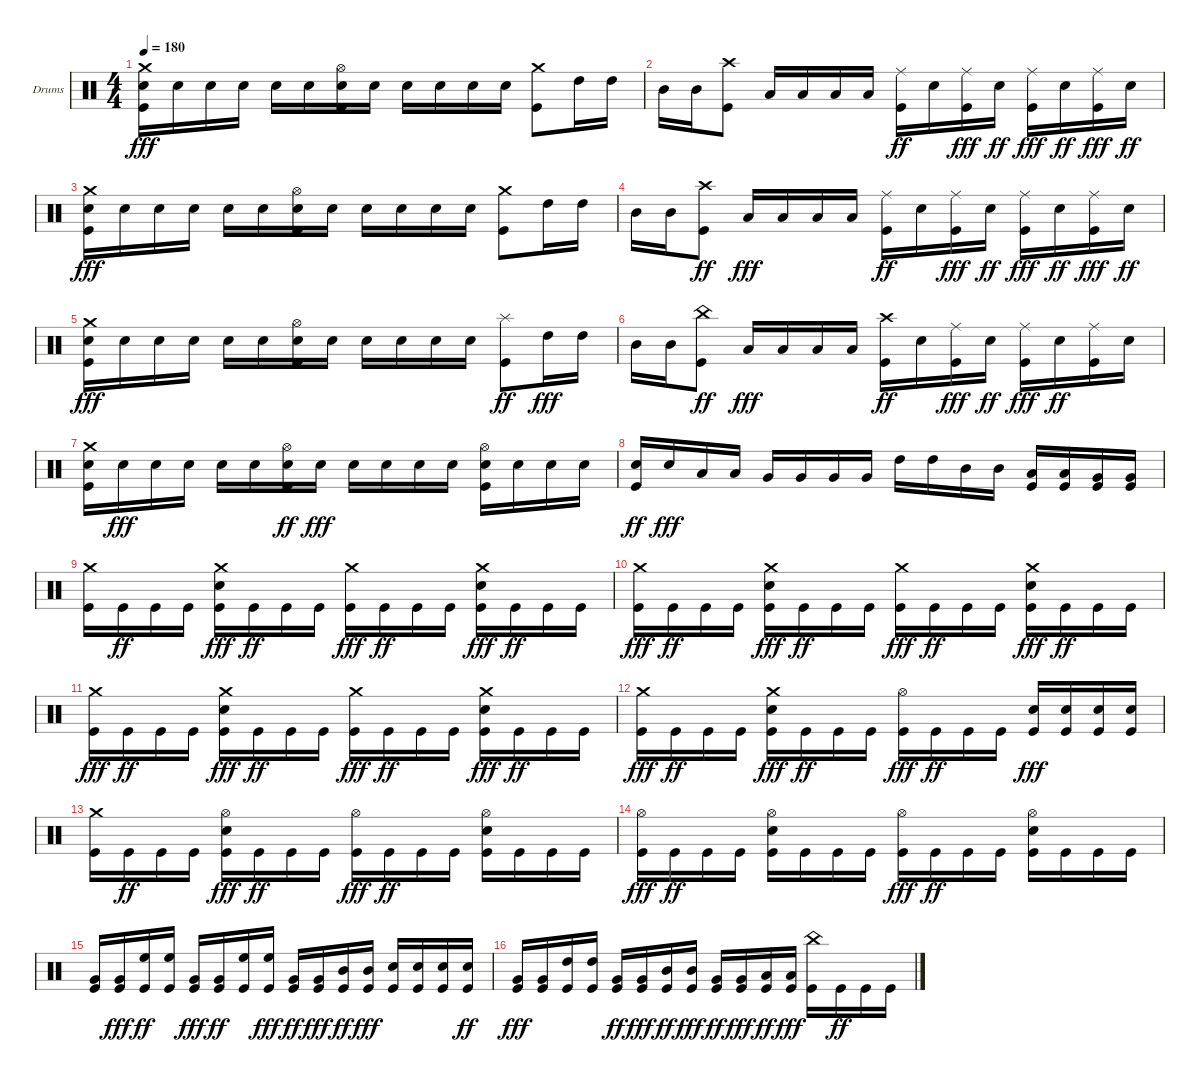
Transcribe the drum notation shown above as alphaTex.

\bracketExtendMode groupsimilarinstruments
\firstSystemTrackNameOrientation horizontal
\otherSystemsTrackNameOrientation horizontal
\track ("Drumkit" "Drums") {instrument percussion}
\staff {score}
\articulation defaults
\ts (4 4)
\tempo 180
\clef neutral
\ks c
("Snare (hit) 2" "Kick (hit)" "Crash medium (hit)").16{dy fff} "Snare (hit) 2".16 "Snare (hit) 2".16 "Snare (hit) 2".16 "Snare (hit) 2".16 "Snare (hit) 2".16 ("Snare (hit) 2" "Hi-Hat (open)" "Kick (hit)").16 "Snare (hit) 2".16 "Snare (hit) 2".16 "Snare (hit) 2".16 "Snare (hit) 2".16 "Snare (hit) 2".16 ("Crash medium (hit)" "Kick (hit)").8 "High Tom (hit)".16 "High Tom (hit)".16 |
"Mid Tom (hit)".16 "Mid Tom (hit)".16 ("Crash high (hit)" "Kick (hit)").8 "Low Tom (hit)".16 "Low Tom (hit)".16 "Low Tom (hit)".16 "Low Tom (hit)".16 ("Kick (hit)" "Ride (middle)").16{dy ff} "Snare (hit) 2".16 ("Ride (middle)" "Kick (hit)").16{dy fff} "Snare (hit) 2".16{dy ff} ("Ride (middle)" "Kick (hit)").16{dy fff} "Snare (hit) 2".16{dy ff} ("Ride (middle)" "Kick (hit)").16{dy fff} "Snare (hit) 2".16{dy ff} |
("Snare (hit) 2" "Kick (hit)" "Crash medium (hit)").16{dy fff} "Snare (hit) 2".16 "Snare (hit) 2".16 "Snare (hit) 2".16 "Snare (hit) 2".16 "Snare (hit) 2".16 ("Snare (hit) 2" "Hi-Hat (open)" "Kick (hit)").16 "Snare (hit) 2".16 "Snare (hit) 2".16 "Snare (hit) 2".16 "Snare (hit) 2".16 "Snare (hit) 2".16 ("Crash medium (hit)" "Kick (hit)").8 "High Tom (hit)".16 "High Tom (hit)".16 |
"Mid Tom (hit)".16 "Mid Tom (hit)".16 ("Kick (hit)" "Crash high (hit)").8{dy ff} "Low Tom (hit)".16{dy fff} "Low Tom (hit)".16 "Low Tom (hit)".16 "Low Tom (hit)".16 ("Kick (hit)" "Ride (middle)").16{dy ff} "Snare (hit) 2".16 ("Ride (middle)" "Kick (hit)").16{dy fff} "Snare (hit) 2".16{dy ff} ("Ride (middle)" "Kick (hit)").16{dy fff} "Snare (hit) 2".16{dy ff} ("Ride (middle)" "Kick (hit)").16{dy fff} "Snare (hit) 2".16{dy ff} |
("Snare (hit) 2" "Kick (hit)" "Crash medium (hit)").16{dy fff} "Snare (hit) 2".16 "Snare (hit) 2".16 "Snare (hit) 2".16 "Snare (hit) 2".16 "Snare (hit) 2".16 ("Snare (hit) 2" "Hi-Hat (open)" "Kick (hit)").16 "Snare (hit) 2".16 "Snare (hit) 2".16 "Snare (hit) 2".16 "Snare (hit) 2".16 "Snare (hit) 2".16 ("Kick (hit)" "Splash (hit)").8{dy ff} "High Tom (hit)".16{dy fff} "High Tom (hit)".16 |
"Mid Tom (hit)".16 "Mid Tom (hit)".16 ("Kick (hit)" "China (hit)").8{dy ff} "Low Tom (hit)".16{dy fff} "Low Tom (hit)".16 "Low Tom (hit)".16 "Low Tom (hit)".16 ("Kick (hit)" "Crash high (hit)").16{dy ff} "Snare (hit) 2".16 ("Ride (middle)" "Kick (hit)").16{dy fff} "Snare (hit) 2".16{dy ff} ("Ride (middle)" "Kick (hit)").16{dy fff} "Snare (hit) 2".16{dy ff} ("Kick (hit)" "Ride (middle)").16 "Snare (hit) 2".16 |
("Kick (hit)" "Snare (hit) 2" "Crash medium (hit)").16 "Snare (hit) 2".16{dy fff} "Snare (hit) 2".16 "Snare (hit) 2".16 "Snare (hit) 2".16 "Snare (hit) 2".16 ("Kick (hit)" "Hi-Hat (open)" "Snare (hit) 2").16{dy ff} "Snare (hit) 2".16{dy fff} "Snare (hit) 2".16 "Snare (hit) 2".16 "Snare (hit) 2".16 "Snare (hit) 2".16 ("Snare (hit) 2" "Hi-Hat (open)" "Kick (hit)").16 "Snare (hit) 2".16 "Snare (hit) 2".16 "Snare (hit) 2".16 |
("Kick (hit)" "Snare (hit) 2").16{dy ff} "Snare (hit) 2".16{dy fff} "Low Tom (hit)".16 "Low Tom (hit)".16 "Very Low Tom (hit)".16 "Very Low Tom (hit)".16 "Very Low Tom (hit)".16 "Very Low Tom (hit)".16 "High Tom (hit)".16 "High Tom (hit)".16 "Mid Tom (hit)".16 "Mid Tom (hit)".16 ("Low Tom (hit)" "Kick (hit)").16 ("Low Tom (hit)" "Kick (hit)").16 ("Very Low Tom (hit)" "Kick (hit)").16 ("Very Low Tom (hit)" "Kick (hit)").16 |
("Crash medium (hit)" "Kick (hit)").16 "Kick (hit)".16{dy ff} "Kick (hit)".16 "Kick (hit)".16 ("Crash medium (hit)" "Snare (hit) 2" "Kick (hit)").16{dy fff} "Kick (hit)".16{dy ff} "Kick (hit)".16 "Kick (hit)".16 ("Crash medium (hit)" "Kick (hit)").16{dy fff} "Kick (hit)".16{dy ff} "Kick (hit)".16 "Kick (hit)".16 ("Crash medium (hit)" "Snare (hit) 2" "Kick (hit)").16{dy fff} "Kick (hit)".16{dy ff} "Kick (hit)".16 "Kick (hit)".16 |
("Crash medium (hit)" "Kick (hit)").16{dy fff} "Kick (hit)".16{dy ff} "Kick (hit)".16 "Kick (hit)".16 ("Crash medium (hit)" "Snare (hit) 2" "Kick (hit)").16{dy fff} "Kick (hit)".16{dy ff} "Kick (hit)".16 "Kick (hit)".16 ("Crash medium (hit)" "Kick (hit)").16{dy fff} "Kick (hit)".16{dy ff} "Kick (hit)".16 "Kick (hit)".16 ("Crash medium (hit)" "Snare (hit) 2" "Kick (hit)").16{dy fff} "Kick (hit)".16{dy ff} "Kick (hit)".16 "Kick (hit)".16 |
("Crash medium (hit)" "Kick (hit)").16{dy fff} "Kick (hit)".16{dy ff} "Kick (hit)".16 "Kick (hit)".16 ("Crash medium (hit)" "Snare (hit) 2" "Kick (hit)").16{dy fff} "Kick (hit)".16{dy ff} "Kick (hit)".16 "Kick (hit)".16 ("Crash medium (hit)" "Kick (hit)").16{dy fff} "Kick (hit)".16{dy ff} "Kick (hit)".16 "Kick (hit)".16 ("Crash medium (hit)" "Snare (hit) 2" "Kick (hit)").16{dy fff} "Kick (hit)".16{dy ff} "Kick (hit)".16 "Kick (hit)".16 |
("Crash medium (hit)" "Kick (hit)").16{dy fff} "Kick (hit)".16{dy ff} "Kick (hit)".16 "Kick (hit)".16 ("Crash medium (hit)" "Kick (hit)" "Snare (hit) 2").16{dy fff} "Kick (hit)".16{dy ff} "Kick (hit)".16 "Kick (hit)".16 ("Hi-Hat (open)" "Kick (hit)").16{dy fff} "Kick (hit)".16{dy ff} "Kick (hit)".16 "Kick (hit)".16 ("Snare (hit) 2" "Kick (hit)").16{dy fff} ("Snare (hit) 2" "Kick (hit)").16 ("Snare (hit) 2" "Kick (hit)").16 ("Snare (hit) 2" "Kick (hit)").16 |
("Crash medium (hit)" "Kick (hit)").16 "Kick (hit)".16{dy ff} "Kick (hit)".16 "Kick (hit)".16 ("Hi-Hat (open)" "Snare (hit) 2" "Kick (hit)").16{dy fff} "Kick (hit)".16{dy ff} "Kick (hit)".16 "Kick (hit)".16 ("Hi-Hat (open)" "Kick (hit)").16{dy fff} "Kick (hit)".16{dy ff} "Kick (hit)".16 "Kick (hit)".16 ("Kick (hit)" "Snare (hit) 2" "Hi-Hat (open)").16 "Kick (hit)".16 "Kick (hit)".16 "Kick (hit)".16 |
("Hi-Hat (open)" "Kick (hit)").16{dy fff} "Kick (hit)".16{dy ff} "Kick (hit)".16 "Kick (hit)".16 ("Kick (hit)" "Snare (hit) 2" "Hi-Hat (open)").16 "Kick (hit)".16 "Kick (hit)".16 "Kick (hit)".16 ("Hi-Hat (open)" "Kick (hit)").16{dy fff} "Kick (hit)".16{dy ff} "Kick (hit)".16 "Kick (hit)".16 ("Kick (hit)" "Snare (hit) 2" "Hi-Hat (open)").16 "Kick (hit)".16 "Kick (hit)".16 "Kick (hit)".16 |
("Kick (hit)" "Very Low Tom (hit)").16 ("Very Low Tom (hit)" "Kick (hit)").16{dy fff} ("Kick (hit)" "High Floor Tom (hit)").16{dy ff} ("Kick (hit)" "High Floor Tom (hit)").16 ("Very Low Tom (hit)" "Kick (hit)").16{dy fff} ("Kick (hit)" "Very Low Tom (hit)").16{dy ff} ("Kick (hit)" "High Floor Tom (hit)").16 ("High Floor Tom (hit)" "Kick (hit)").16{dy fff} ("Kick (hit)" "Very Low Tom (hit)").16{dy ff} ("Very Low Tom (hit)" "Kick (hit)").16{dy fff} ("Kick (hit)" "Mid Tom (hit)").16{dy ff} ("Mid Tom (hit)" "Kick (hit)").16{dy fff} ("Snare (hit) 2" "Kick (hit)").16 ("Snare (hit) 2" "Kick (hit)").16 ("Snare (hit) 2" "Kick (hit)").16 ("Kick (hit)" "Snare (hit) 2").16{dy ff} |
("Very Low Tom (hit)" "Kick (hit)").16{dy fff} ("Very Low Tom (hit)" "Kick (hit)").16 ("High Tom (hit)" "Kick (hit)").16 ("High Tom (hit)" "Kick (hit)").16 ("Kick (hit)" "Very Low Tom (hit)").16{dy ff} ("Very Low Tom (hit)" "Kick (hit)").16{dy fff} ("Kick (hit)" "Mid Tom (hit)").16{dy ff} ("Mid Tom (hit)" "Kick (hit)").16{dy fff} ("Kick (hit)" "Very Low Tom (hit)").16{dy ff} ("Very Low Tom (hit)" "Kick (hit)").16{dy fff} ("Kick (hit)" "Low Tom (hit)").16{dy ff} ("Low Tom (hit)" "Kick (hit)").16{dy fff} ("China (hit)" "Kick (hit)").16 "Kick (hit)".16{dy ff} "Kick (hit)".16 "Kick (hit)".16
